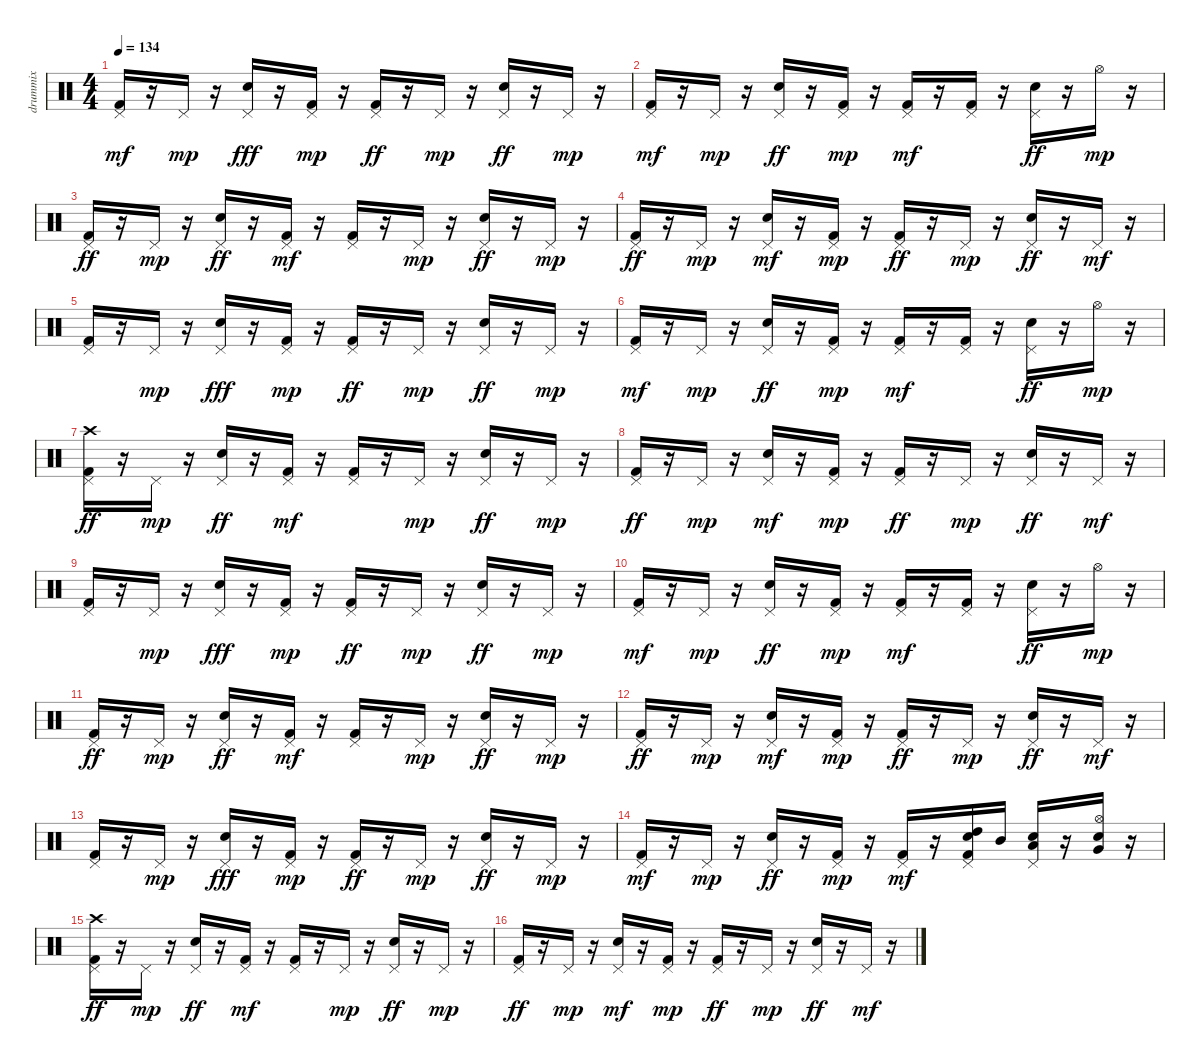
\track ("drummix" "drummix") {instrument percussion}
\staff {score}
\articulation defaults
\ts (4 4)
\tempo 134
\clef neutral
\ks c
("Kick (hit) 2" "Pedal Hi-Hat (hit)").16{dy mf} r.16 "Pedal Hi-Hat (hit)".16{dy mp} r.16 ("Snare (hit) 2" "Pedal Hi-Hat (hit)").16{dy fff} r.16 ("Kick (hit) 2" "Pedal Hi-Hat (hit)").16{dy mp} r.16 ("Kick (hit) 2" "Pedal Hi-Hat (hit)").16{dy ff} r.16 "Pedal Hi-Hat (hit)".16{dy mp} r.16 ("Snare (hit) 2" "Pedal Hi-Hat (hit)").16{dy ff} r.16 "Pedal Hi-Hat (hit)".16{dy mp} r.16 |
("Kick (hit) 2" "Pedal Hi-Hat (hit)").16{dy mf} r.16 "Pedal Hi-Hat (hit)".16{dy mp} r.16 ("Snare (hit) 2" "Pedal Hi-Hat (hit)").16{dy ff} r.16 ("Kick (hit) 2" "Pedal Hi-Hat (hit)").16{dy mp} r.16 ("Kick (hit) 2" "Pedal Hi-Hat (hit)").16{dy mf} r.16 ("Kick (hit) 2" "Pedal Hi-Hat (hit)").16 r.16 ("Snare (hit) 2" "Pedal Hi-Hat (hit)").16{dy ff} r.16 "Hi-Hat (open)".16{dy mp} r.16 |
("Kick (hit) 2" "Pedal Hi-Hat (hit)").16{dy ff} r.16 "Pedal Hi-Hat (hit)".16{dy mp} r.16 ("Snare (hit) 2" "Pedal Hi-Hat (hit)").16{dy ff} r.16 ("Kick (hit) 2" "Pedal Hi-Hat (hit)").16{dy mf} r.16 ("Kick (hit) 2" "Pedal Hi-Hat (hit)").16 r.16 "Pedal Hi-Hat (hit)".16{dy mp} r.16 ("Snare (hit) 2" "Pedal Hi-Hat (hit)").16{dy ff} r.16 "Pedal Hi-Hat (hit)".16{dy mp} r.16 |
("Kick (hit) 2" "Pedal Hi-Hat (hit)").16{dy ff} r.16 "Pedal Hi-Hat (hit)".16{dy mp} r.16 ("Snare (hit) 2" "Pedal Hi-Hat (hit)").16{dy mf} r.16 ("Kick (hit) 2" "Pedal Hi-Hat (hit)").16{dy mp} r.16 ("Kick (hit) 2" "Pedal Hi-Hat (hit)").16{dy ff} r.16 "Pedal Hi-Hat (hit)".16{dy mp} r.16 ("Snare (hit) 2" "Pedal Hi-Hat (hit)").16{dy ff} r.16 "Pedal Hi-Hat (hit)".16{dy mf} r.16 |
("Kick (hit) 2" "Pedal Hi-Hat (hit)").16 r.16 "Pedal Hi-Hat (hit)".16{dy mp} r.16 ("Snare (hit) 2" "Pedal Hi-Hat (hit)").16{dy fff} r.16 ("Kick (hit) 2" "Pedal Hi-Hat (hit)").16{dy mp} r.16 ("Kick (hit) 2" "Pedal Hi-Hat (hit)").16{dy ff} r.16 "Pedal Hi-Hat (hit)".16{dy mp} r.16 ("Snare (hit) 2" "Pedal Hi-Hat (hit)").16{dy ff} r.16 "Pedal Hi-Hat (hit)".16{dy mp} r.16 |
("Kick (hit) 2" "Pedal Hi-Hat (hit)").16{dy mf} r.16 "Pedal Hi-Hat (hit)".16{dy mp} r.16 ("Snare (hit) 2" "Pedal Hi-Hat (hit)").16{dy ff} r.16 ("Kick (hit) 2" "Pedal Hi-Hat (hit)").16{dy mp} r.16 ("Kick (hit) 2" "Pedal Hi-Hat (hit)").16{dy mf} r.16 ("Kick (hit) 2" "Pedal Hi-Hat (hit)").16 r.16 ("Snare (hit) 2" "Pedal Hi-Hat (hit)").16{dy ff} r.16 "Hi-Hat (open)".16{dy mp} r.16 |
("Kick (hit) 2" "Pedal Hi-Hat (hit)" "Crash high (hit)").16{dy ff} r.16 "Pedal Hi-Hat (hit)".16{dy mp} r.16 ("Snare (hit) 2" "Pedal Hi-Hat (hit)").16{dy ff} r.16 ("Kick (hit) 2" "Pedal Hi-Hat (hit)").16{dy mf} r.16 ("Kick (hit) 2" "Pedal Hi-Hat (hit)").16 r.16 "Pedal Hi-Hat (hit)".16{dy mp} r.16 ("Snare (hit) 2" "Pedal Hi-Hat (hit)").16{dy ff} r.16 "Pedal Hi-Hat (hit)".16{dy mp} r.16 |
("Kick (hit) 2" "Pedal Hi-Hat (hit)").16{dy ff} r.16 "Pedal Hi-Hat (hit)".16{dy mp} r.16 ("Snare (hit) 2" "Pedal Hi-Hat (hit)").16{dy mf} r.16 ("Kick (hit) 2" "Pedal Hi-Hat (hit)").16{dy mp} r.16 ("Kick (hit) 2" "Pedal Hi-Hat (hit)").16{dy ff} r.16 "Pedal Hi-Hat (hit)".16{dy mp} r.16 ("Snare (hit) 2" "Pedal Hi-Hat (hit)").16{dy ff} r.16 "Pedal Hi-Hat (hit)".16{dy mf} r.16 |
("Kick (hit) 2" "Pedal Hi-Hat (hit)").16 r.16 "Pedal Hi-Hat (hit)".16{dy mp} r.16 ("Snare (hit) 2" "Pedal Hi-Hat (hit)").16{dy fff} r.16 ("Kick (hit) 2" "Pedal Hi-Hat (hit)").16{dy mp} r.16 ("Kick (hit) 2" "Pedal Hi-Hat (hit)").16{dy ff} r.16 "Pedal Hi-Hat (hit)".16{dy mp} r.16 ("Snare (hit) 2" "Pedal Hi-Hat (hit)").16{dy ff} r.16 "Pedal Hi-Hat (hit)".16{dy mp} r.16 |
("Kick (hit) 2" "Pedal Hi-Hat (hit)").16{dy mf} r.16 "Pedal Hi-Hat (hit)".16{dy mp} r.16 ("Snare (hit) 2" "Pedal Hi-Hat (hit)").16{dy ff} r.16 ("Kick (hit) 2" "Pedal Hi-Hat (hit)").16{dy mp} r.16 ("Kick (hit) 2" "Pedal Hi-Hat (hit)").16{dy mf} r.16 ("Kick (hit) 2" "Pedal Hi-Hat (hit)").16 r.16 ("Snare (hit) 2" "Pedal Hi-Hat (hit)").16{dy ff} r.16 "Hi-Hat (open)".16{dy mp} r.16 |
("Kick (hit) 2" "Pedal Hi-Hat (hit)").16{dy ff} r.16 "Pedal Hi-Hat (hit)".16{dy mp} r.16 ("Snare (hit) 2" "Pedal Hi-Hat (hit)").16{dy ff} r.16 ("Kick (hit) 2" "Pedal Hi-Hat (hit)").16{dy mf} r.16 ("Kick (hit) 2" "Pedal Hi-Hat (hit)").16 r.16 "Pedal Hi-Hat (hit)".16{dy mp} r.16 ("Snare (hit) 2" "Pedal Hi-Hat (hit)").16{dy ff} r.16 "Pedal Hi-Hat (hit)".16{dy mp} r.16 |
("Kick (hit) 2" "Pedal Hi-Hat (hit)").16{dy ff} r.16 "Pedal Hi-Hat (hit)".16{dy mp} r.16 ("Snare (hit) 2" "Pedal Hi-Hat (hit)").16{dy mf} r.16 ("Kick (hit) 2" "Pedal Hi-Hat (hit)").16{dy mp} r.16 ("Kick (hit) 2" "Pedal Hi-Hat (hit)").16{dy ff} r.16 "Pedal Hi-Hat (hit)".16{dy mp} r.16 ("Snare (hit) 2" "Pedal Hi-Hat (hit)").16{dy ff} r.16 "Pedal Hi-Hat (hit)".16{dy mf} r.16 |
("Kick (hit) 2" "Pedal Hi-Hat (hit)").16 r.16 "Pedal Hi-Hat (hit)".16{dy mp} r.16 ("Snare (hit) 2" "Pedal Hi-Hat (hit)").16{dy fff} r.16 ("Kick (hit) 2" "Pedal Hi-Hat (hit)").16{dy mp} r.16 ("Kick (hit) 2" "Pedal Hi-Hat (hit)").16{dy ff} r.16 "Pedal Hi-Hat (hit)".16{dy mp} r.16 ("Snare (hit) 2" "Pedal Hi-Hat (hit)").16{dy ff} r.16 "Pedal Hi-Hat (hit)".16{dy mp} r.16 |
("Kick (hit) 2" "Pedal Hi-Hat (hit)").16{dy mf} r.16 "Pedal Hi-Hat (hit)".16{dy mp} r.16 ("Snare (hit) 2" "Pedal Hi-Hat (hit)").16{dy ff} r.16 ("Kick (hit) 2" "Pedal Hi-Hat (hit)").16{dy mp} r.16 ("Kick (hit) 2" "Pedal Hi-Hat (hit)").16{dy mf} r.16 ("Kick (hit) 2" "Snare (hit) 2" "Pedal Hi-Hat (hit)" "High Tom (hit)").16 "Mid Tom (hit)".16 ("Snare (hit) 2" "Pedal Hi-Hat (hit)" "Low Tom (hit)").16 r.16 ("Snare (hit) 2" "Hi-Hat (open)" "Very Low Tom (hit)").16 r.16 |
("Kick (hit) 2" "Pedal Hi-Hat (hit)" "Crash high (hit)").16{dy ff} r.16 "Pedal Hi-Hat (hit)".16{dy mp} r.16 ("Snare (hit) 2" "Pedal Hi-Hat (hit)").16{dy ff} r.16 ("Kick (hit) 2" "Pedal Hi-Hat (hit)").16{dy mf} r.16 ("Kick (hit) 2" "Pedal Hi-Hat (hit)").16 r.16 "Pedal Hi-Hat (hit)".16{dy mp} r.16 ("Snare (hit) 2" "Pedal Hi-Hat (hit)").16{dy ff} r.16 "Pedal Hi-Hat (hit)".16{dy mp} r.16 |
("Kick (hit) 2" "Pedal Hi-Hat (hit)").16{dy ff} r.16 "Pedal Hi-Hat (hit)".16{dy mp} r.16 ("Snare (hit) 2" "Pedal Hi-Hat (hit)").16{dy mf} r.16 ("Kick (hit) 2" "Pedal Hi-Hat (hit)").16{dy mp} r.16 ("Kick (hit) 2" "Pedal Hi-Hat (hit)").16{dy ff} r.16 "Pedal Hi-Hat (hit)".16{dy mp} r.16 ("Snare (hit) 2" "Pedal Hi-Hat (hit)").16{dy ff} r.16 "Pedal Hi-Hat (hit)".16{dy mf} r.16
